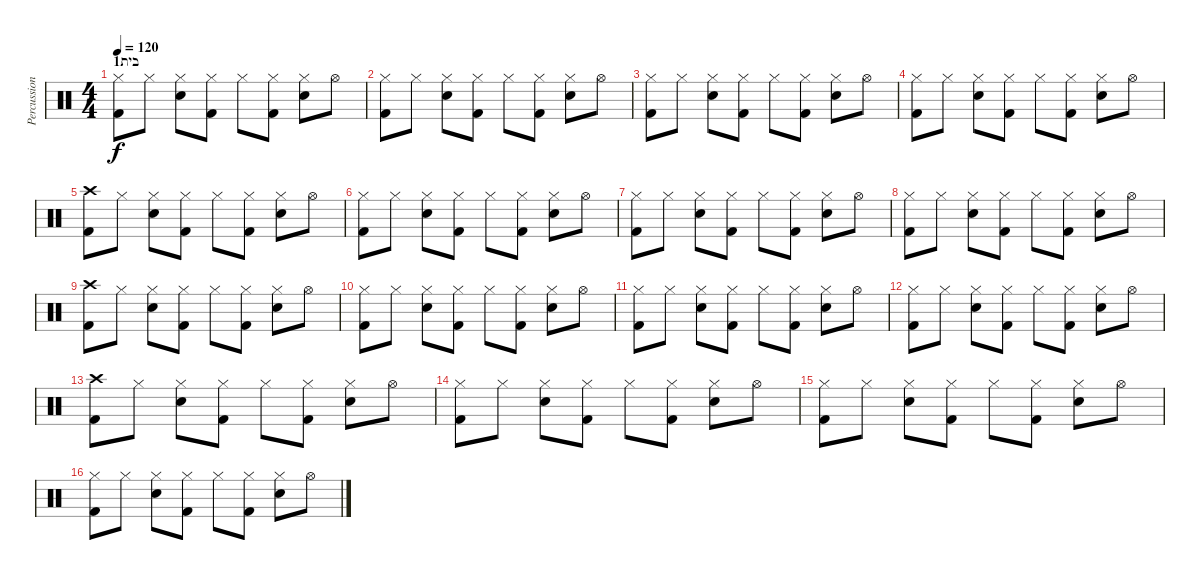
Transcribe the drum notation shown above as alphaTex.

\track ("Percussion" "Percussion") {instrument percussion}
\staff {score}
\articulation defaults
\ts (4 4)
\section ("" "בית1")
\tempo 120
\clef neutral
\ks c
("Hi-Hat (closed)" "Kick (hit) 2").8{dy f} "Hi-Hat (closed)".8 ("Hi-Hat (closed)" "Electric Snare (hit)").8 ("Hi-Hat (closed)" "Kick (hit) 2").8 "Hi-Hat (closed)".8 ("Hi-Hat (closed)" "Kick (hit) 2").8 ("Hi-Hat (closed)" "Electric Snare (hit)").8 "Hi-Hat (open)".8 |
("Hi-Hat (closed)" "Kick (hit) 2").8 "Hi-Hat (closed)".8 ("Hi-Hat (closed)" "Electric Snare (hit)").8 ("Hi-Hat (closed)" "Kick (hit) 2").8 "Hi-Hat (closed)".8 ("Hi-Hat (closed)" "Kick (hit) 2").8 ("Hi-Hat (closed)" "Electric Snare (hit)").8 "Hi-Hat (open)".8 |
("Hi-Hat (closed)" "Kick (hit) 2").8 "Hi-Hat (closed)".8 ("Hi-Hat (closed)" "Electric Snare (hit)").8 ("Hi-Hat (closed)" "Kick (hit) 2").8 "Hi-Hat (closed)".8 ("Hi-Hat (closed)" "Kick (hit) 2").8 ("Hi-Hat (closed)" "Electric Snare (hit)").8 "Hi-Hat (open)".8 |
("Hi-Hat (closed)" "Kick (hit) 2").8 "Hi-Hat (closed)".8 ("Hi-Hat (closed)" "Electric Snare (hit)").8 ("Hi-Hat (closed)" "Kick (hit) 2").8 "Hi-Hat (closed)".8 ("Hi-Hat (closed)" "Kick (hit) 2").8 ("Hi-Hat (closed)" "Electric Snare (hit)").8 "Hi-Hat (open)".8 |
("Crash high (hit)" "Kick (hit) 2").8 "Hi-Hat (closed)".8 ("Hi-Hat (closed)" "Electric Snare (hit)").8 ("Hi-Hat (closed)" "Kick (hit) 2").8 "Hi-Hat (closed)".8 ("Hi-Hat (closed)" "Kick (hit) 2").8 ("Hi-Hat (closed)" "Electric Snare (hit)").8 "Hi-Hat (open)".8 |
("Hi-Hat (closed)" "Kick (hit) 2").8 "Hi-Hat (closed)".8 ("Hi-Hat (closed)" "Electric Snare (hit)").8 ("Hi-Hat (closed)" "Kick (hit) 2").8 "Hi-Hat (closed)".8 ("Hi-Hat (closed)" "Kick (hit) 2").8 ("Hi-Hat (closed)" "Electric Snare (hit)").8 "Hi-Hat (open)".8 |
("Hi-Hat (closed)" "Kick (hit) 2").8 "Hi-Hat (closed)".8 ("Hi-Hat (closed)" "Electric Snare (hit)").8 ("Hi-Hat (closed)" "Kick (hit) 2").8 "Hi-Hat (closed)".8 ("Hi-Hat (closed)" "Kick (hit) 2").8 ("Hi-Hat (closed)" "Electric Snare (hit)").8 "Hi-Hat (open)".8 |
("Hi-Hat (closed)" "Kick (hit) 2").8 "Hi-Hat (closed)".8 ("Hi-Hat (closed)" "Electric Snare (hit)").8 ("Hi-Hat (closed)" "Kick (hit) 2").8 "Hi-Hat (closed)".8 ("Hi-Hat (closed)" "Kick (hit) 2").8 ("Hi-Hat (closed)" "Electric Snare (hit)").8 "Hi-Hat (open)".8 |
("Crash high (hit)" "Kick (hit) 2").8 "Hi-Hat (closed)".8 ("Hi-Hat (closed)" "Electric Snare (hit)").8 ("Hi-Hat (closed)" "Kick (hit) 2").8 "Hi-Hat (closed)".8 ("Hi-Hat (closed)" "Kick (hit) 2").8 ("Hi-Hat (closed)" "Electric Snare (hit)").8 "Hi-Hat (open)".8 |
("Hi-Hat (closed)" "Kick (hit) 2").8 "Hi-Hat (closed)".8 ("Hi-Hat (closed)" "Electric Snare (hit)").8 ("Hi-Hat (closed)" "Kick (hit) 2").8 "Hi-Hat (closed)".8 ("Hi-Hat (closed)" "Kick (hit) 2").8 ("Hi-Hat (closed)" "Electric Snare (hit)").8 "Hi-Hat (open)".8 |
("Hi-Hat (closed)" "Kick (hit) 2").8 "Hi-Hat (closed)".8 ("Hi-Hat (closed)" "Electric Snare (hit)").8 ("Hi-Hat (closed)" "Kick (hit) 2").8 "Hi-Hat (closed)".8 ("Hi-Hat (closed)" "Kick (hit) 2").8 ("Hi-Hat (closed)" "Electric Snare (hit)").8 "Hi-Hat (open)".8 |
("Hi-Hat (closed)" "Kick (hit) 2").8 "Hi-Hat (closed)".8 ("Hi-Hat (closed)" "Electric Snare (hit)").8 ("Hi-Hat (closed)" "Kick (hit) 2").8 "Hi-Hat (closed)".8 ("Hi-Hat (closed)" "Kick (hit) 2").8 ("Hi-Hat (closed)" "Electric Snare (hit)").8 "Hi-Hat (open)".8 |
("Crash high (hit)" "Kick (hit) 2").8 "Hi-Hat (closed)".8 ("Hi-Hat (closed)" "Electric Snare (hit)").8 ("Hi-Hat (closed)" "Kick (hit) 2").8 "Hi-Hat (closed)".8 ("Hi-Hat (closed)" "Kick (hit) 2").8 ("Hi-Hat (closed)" "Electric Snare (hit)").8 "Hi-Hat (open)".8 |
("Hi-Hat (closed)" "Kick (hit) 2").8 "Hi-Hat (closed)".8 ("Hi-Hat (closed)" "Electric Snare (hit)").8 ("Hi-Hat (closed)" "Kick (hit) 2").8 "Hi-Hat (closed)".8 ("Hi-Hat (closed)" "Kick (hit) 2").8 ("Hi-Hat (closed)" "Electric Snare (hit)").8 "Hi-Hat (open)".8 |
("Hi-Hat (closed)" "Kick (hit) 2").8 "Hi-Hat (closed)".8 ("Hi-Hat (closed)" "Electric Snare (hit)").8 ("Hi-Hat (closed)" "Kick (hit) 2").8 "Hi-Hat (closed)".8 ("Hi-Hat (closed)" "Kick (hit) 2").8 ("Hi-Hat (closed)" "Electric Snare (hit)").8 "Hi-Hat (open)".8 |
("Hi-Hat (closed)" "Kick (hit) 2").8 "Hi-Hat (closed)".8 ("Hi-Hat (closed)" "Electric Snare (hit)").8 ("Hi-Hat (closed)" "Kick (hit) 2").8 "Hi-Hat (closed)".8 ("Hi-Hat (closed)" "Kick (hit) 2").8 ("Hi-Hat (closed)" "Electric Snare (hit)").8 "Hi-Hat (open)".8
